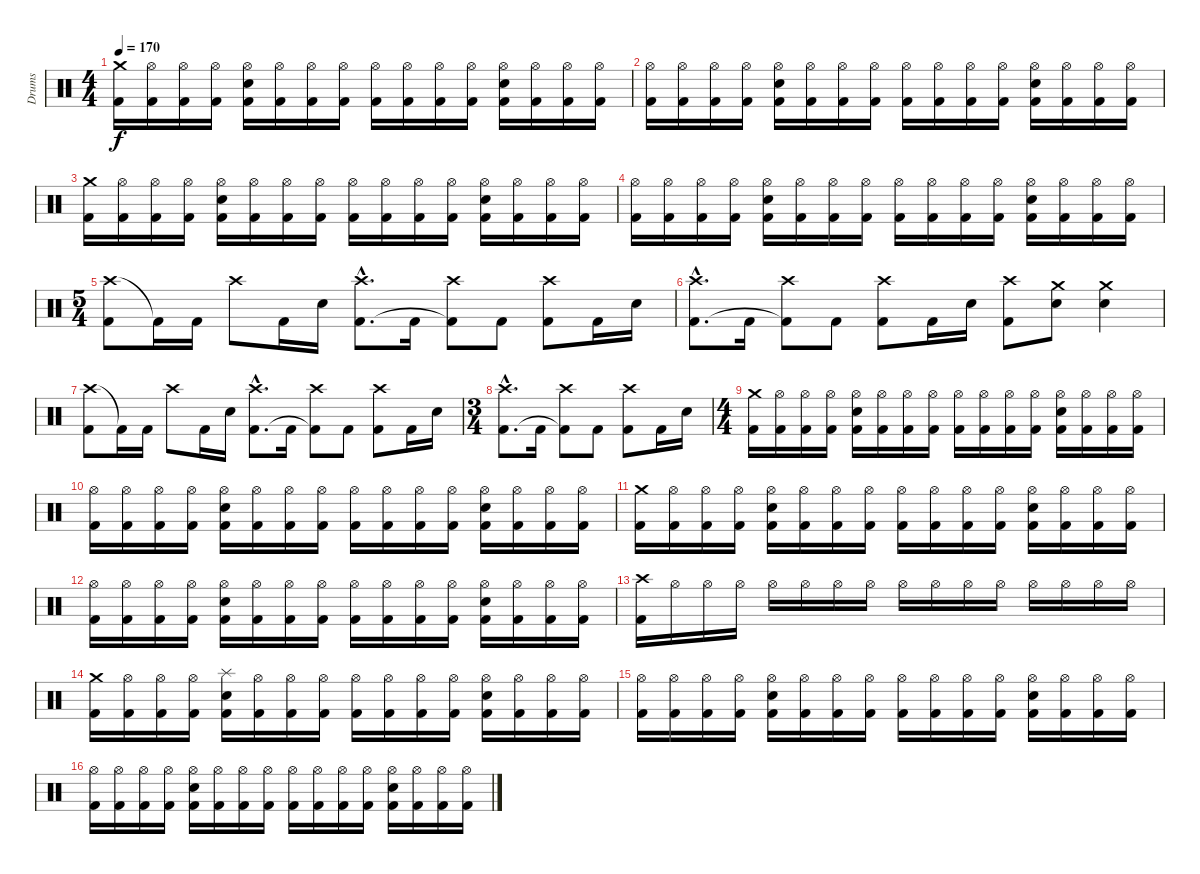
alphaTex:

\track ("Drums" "Drums") {instrument percussion}
\staff {score}
\articulation defaults
\ts (4 4)
\tempo 170
\clef neutral
\ks c
("Crash medium (hit)" "Kick (hit) 2").16{dy f} ("Hi-Hat (open)" "Kick (hit) 2").16 ("Hi-Hat (open)" "Kick (hit) 2").16 ("Hi-Hat (open)" "Kick (hit) 2").16 ("Hi-Hat (open)" "Electric Snare (hit)" "Kick (hit) 2").16 ("Hi-Hat (open)" "Kick (hit) 2").16 ("Hi-Hat (open)" "Kick (hit) 2").16 ("Hi-Hat (open)" "Kick (hit) 2").16 ("Hi-Hat (open)" "Kick (hit) 2").16 ("Hi-Hat (open)" "Kick (hit) 2").16 ("Hi-Hat (open)" "Kick (hit) 2").16 ("Hi-Hat (open)" "Kick (hit) 2").16 ("Hi-Hat (open)" "Electric Snare (hit)" "Kick (hit) 2").16 ("Hi-Hat (open)" "Kick (hit) 2").16 ("Hi-Hat (open)" "Kick (hit) 2").16 ("Hi-Hat (open)" "Kick (hit) 2").16 |
("Hi-Hat (open)" "Kick (hit) 2").16 ("Hi-Hat (open)" "Kick (hit) 2").16 ("Hi-Hat (open)" "Kick (hit) 2").16 ("Hi-Hat (open)" "Kick (hit) 2").16 ("Hi-Hat (open)" "Electric Snare (hit)" "Kick (hit) 2").16 ("Hi-Hat (open)" "Kick (hit) 2").16 ("Hi-Hat (open)" "Kick (hit) 2").16 ("Hi-Hat (open)" "Kick (hit) 2").16 ("Hi-Hat (open)" "Kick (hit) 2").16 ("Hi-Hat (open)" "Kick (hit) 2").16 ("Hi-Hat (open)" "Kick (hit) 2").16 ("Hi-Hat (open)" "Kick (hit) 2").16 ("Hi-Hat (open)" "Electric Snare (hit)" "Kick (hit) 2").16 ("Hi-Hat (open)" "Kick (hit) 2").16 ("Hi-Hat (open)" "Kick (hit) 2").16 ("Hi-Hat (open)" "Kick (hit) 2").16 |
("Crash medium (hit)" "Kick (hit) 2").16 ("Hi-Hat (open)" "Kick (hit) 2").16 ("Hi-Hat (open)" "Kick (hit) 2").16 ("Hi-Hat (open)" "Kick (hit) 2").16 ("Hi-Hat (open)" "Electric Snare (hit)" "Kick (hit) 2").16 ("Hi-Hat (open)" "Kick (hit) 2").16 ("Hi-Hat (open)" "Kick (hit) 2").16 ("Hi-Hat (open)" "Kick (hit) 2").16 ("Hi-Hat (open)" "Kick (hit) 2").16 ("Hi-Hat (open)" "Kick (hit) 2").16 ("Hi-Hat (open)" "Kick (hit) 2").16 ("Hi-Hat (open)" "Kick (hit) 2").16 ("Hi-Hat (open)" "Electric Snare (hit)" "Kick (hit) 2").16 ("Hi-Hat (open)" "Kick (hit) 2").16 ("Hi-Hat (open)" "Kick (hit) 2").16 ("Hi-Hat (open)" "Kick (hit) 2").16 |
("Hi-Hat (open)" "Kick (hit) 2").16 ("Hi-Hat (open)" "Kick (hit) 2").16 ("Hi-Hat (open)" "Kick (hit) 2").16 ("Hi-Hat (open)" "Kick (hit) 2").16 ("Hi-Hat (open)" "Electric Snare (hit)" "Kick (hit) 2").16 ("Hi-Hat (open)" "Kick (hit) 2").16 ("Hi-Hat (open)" "Kick (hit) 2").16 ("Hi-Hat (open)" "Kick (hit) 2").16 ("Hi-Hat (open)" "Kick (hit) 2").16 ("Hi-Hat (open)" "Kick (hit) 2").16 ("Hi-Hat (open)" "Kick (hit) 2").16 ("Hi-Hat (open)" "Kick (hit) 2").16 ("Hi-Hat (open)" "Electric Snare (hit)" "Kick (hit) 2").16 ("Hi-Hat (open)" "Kick (hit) 2").16 ("Hi-Hat (open)" "Kick (hit) 2").16 ("Hi-Hat (open)" "Kick (hit) 2").16 |
\ts (5 4)
("Crash high (hit)" "Kick (hit) 2").8 "Kick (hit) 2"{t}.16 "Kick (hit) 2".16 "Crash high (hit)".8 "Kick (hit) 2".16 "Electric Snare (hit)".16 ("Crash high (hit)"{hac} "Kick (hit) 2"{hac}).8{d} "Kick (hit) 2".16 ("Crash high (hit)" "Kick (hit) 2"{t}).8 "Kick (hit) 2".8 ("Crash high (hit)" "Kick (hit) 2").8 "Kick (hit) 2".16 "Electric Snare (hit)".16 |
("Crash high (hit)"{hac} "Kick (hit) 2"{hac}).8{d} "Kick (hit) 2".16 ("Crash high (hit)" "Kick (hit) 2"{t}).8 "Kick (hit) 2".8 ("Crash high (hit)" "Kick (hit) 2").8 "Kick (hit) 2".16 "Electric Snare (hit)".16 ("Crash high (hit)" "Kick (hit) 2").8 ("Crash medium (hit)" "Electric Snare (hit)").8 ("Crash medium (hit)" "Electric Snare (hit)").4 |
("Crash high (hit)" "Kick (hit) 2").8 "Kick (hit) 2"{t}.16 "Kick (hit) 2".16 "Crash high (hit)".8 "Kick (hit) 2".16 "Electric Snare (hit)".16 ("Crash high (hit)"{hac} "Kick (hit) 2"{hac}).8{d} "Kick (hit) 2".16 ("Crash high (hit)" "Kick (hit) 2"{t}).8 "Kick (hit) 2".8 ("Crash high (hit)" "Kick (hit) 2").8 "Kick (hit) 2".16 "Electric Snare (hit)".16 |
\ts (3 4)
("Crash high (hit)"{hac} "Kick (hit) 2"{hac}).8{d} "Kick (hit) 2".16 ("Crash high (hit)" "Kick (hit) 2"{t}).8 "Kick (hit) 2".8 ("Crash high (hit)" "Kick (hit) 2").8 "Kick (hit) 2".16 "Electric Snare (hit)".16 |
\ts (4 4)
("Crash medium (hit)" "Kick (hit) 2").16 ("Hi-Hat (open)" "Kick (hit) 2").16 ("Hi-Hat (open)" "Kick (hit) 2").16 ("Hi-Hat (open)" "Kick (hit) 2").16 ("Hi-Hat (open)" "Electric Snare (hit)" "Kick (hit) 2").16 ("Hi-Hat (open)" "Kick (hit) 2").16 ("Hi-Hat (open)" "Kick (hit) 2").16 ("Hi-Hat (open)" "Kick (hit) 2").16 ("Hi-Hat (open)" "Kick (hit) 2").16 ("Hi-Hat (open)" "Kick (hit) 2").16 ("Hi-Hat (open)" "Kick (hit) 2").16 ("Hi-Hat (open)" "Kick (hit) 2").16 ("Hi-Hat (open)" "Electric Snare (hit)" "Kick (hit) 2").16 ("Hi-Hat (open)" "Kick (hit) 2").16 ("Hi-Hat (open)" "Kick (hit) 2").16 ("Hi-Hat (open)" "Kick (hit) 2").16 |
("Hi-Hat (open)" "Kick (hit) 2").16 ("Hi-Hat (open)" "Kick (hit) 2").16 ("Hi-Hat (open)" "Kick (hit) 2").16 ("Hi-Hat (open)" "Kick (hit) 2").16 ("Hi-Hat (open)" "Electric Snare (hit)" "Kick (hit) 2").16 ("Hi-Hat (open)" "Kick (hit) 2").16 ("Hi-Hat (open)" "Kick (hit) 2").16 ("Hi-Hat (open)" "Kick (hit) 2").16 ("Hi-Hat (open)" "Kick (hit) 2").16 ("Hi-Hat (open)" "Kick (hit) 2").16 ("Hi-Hat (open)" "Kick (hit) 2").16 ("Hi-Hat (open)" "Kick (hit) 2").16 ("Hi-Hat (open)" "Electric Snare (hit)" "Kick (hit) 2").16 ("Hi-Hat (open)" "Kick (hit) 2").16 ("Hi-Hat (open)" "Kick (hit) 2").16 ("Hi-Hat (open)" "Kick (hit) 2").16 |
("Crash medium (hit)" "Kick (hit) 2").16 ("Hi-Hat (open)" "Kick (hit) 2").16 ("Hi-Hat (open)" "Kick (hit) 2").16 ("Hi-Hat (open)" "Kick (hit) 2").16 ("Hi-Hat (open)" "Electric Snare (hit)" "Kick (hit) 2").16 ("Hi-Hat (open)" "Kick (hit) 2").16 ("Hi-Hat (open)" "Kick (hit) 2").16 ("Hi-Hat (open)" "Kick (hit) 2").16 ("Hi-Hat (open)" "Kick (hit) 2").16 ("Hi-Hat (open)" "Kick (hit) 2").16 ("Hi-Hat (open)" "Kick (hit) 2").16 ("Hi-Hat (open)" "Kick (hit) 2").16 ("Hi-Hat (open)" "Electric Snare (hit)" "Kick (hit) 2").16 ("Hi-Hat (open)" "Kick (hit) 2").16 ("Hi-Hat (open)" "Kick (hit) 2").16 ("Hi-Hat (open)" "Kick (hit) 2").16 |
("Hi-Hat (open)" "Kick (hit) 2").16 ("Hi-Hat (open)" "Kick (hit) 2").16 ("Hi-Hat (open)" "Kick (hit) 2").16 ("Hi-Hat (open)" "Kick (hit) 2").16 ("Hi-Hat (open)" "Electric Snare (hit)" "Kick (hit) 2").16 ("Hi-Hat (open)" "Kick (hit) 2").16 ("Hi-Hat (open)" "Kick (hit) 2").16 ("Hi-Hat (open)" "Kick (hit) 2").16 ("Hi-Hat (open)" "Kick (hit) 2").16 ("Hi-Hat (open)" "Kick (hit) 2").16 ("Hi-Hat (open)" "Kick (hit) 2").16 ("Hi-Hat (open)" "Kick (hit) 2").16 ("Hi-Hat (open)" "Electric Snare (hit)" "Kick (hit) 2").16 ("Hi-Hat (open)" "Kick (hit) 2").16 ("Hi-Hat (open)" "Kick (hit) 2").16 ("Hi-Hat (open)" "Kick (hit) 2").16 |
("Crash high (hit)" "Kick (hit) 2").16 "Hi-Hat (open)".16 "Hi-Hat (open)".16 "Hi-Hat (open)".16 "Hi-Hat (open)".16 "Hi-Hat (open)".16 "Hi-Hat (open)".16 "Hi-Hat (open)".16 "Hi-Hat (open)".16 "Hi-Hat (open)".16 "Hi-Hat (open)".16 "Hi-Hat (open)".16 "Hi-Hat (open)".16 "Hi-Hat (open)".16 "Hi-Hat (open)".16 "Hi-Hat (open)".16 |
("Crash medium (hit)" "Kick (hit) 2").16 ("Hi-Hat (open)" "Kick (hit) 2").16 ("Hi-Hat (open)" "Kick (hit) 2").16 ("Hi-Hat (open)" "Kick (hit) 2").16 ("Splash (hit)" "Electric Snare (hit)" "Kick (hit) 2").16 ("Hi-Hat (open)" "Kick (hit) 2").16 ("Hi-Hat (open)" "Kick (hit) 2").16 ("Hi-Hat (open)" "Kick (hit) 2").16 ("Hi-Hat (open)" "Kick (hit) 2").16 ("Hi-Hat (open)" "Kick (hit) 2").16 ("Hi-Hat (open)" "Kick (hit) 2").16 ("Hi-Hat (open)" "Kick (hit) 2").16 ("Hi-Hat (open)" "Electric Snare (hit)" "Kick (hit) 2").16 ("Hi-Hat (open)" "Kick (hit) 2").16 ("Hi-Hat (open)" "Kick (hit) 2").16 ("Hi-Hat (open)" "Kick (hit) 2").16 |
("Hi-Hat (open)" "Kick (hit) 2").16 ("Hi-Hat (open)" "Kick (hit) 2").16 ("Hi-Hat (open)" "Kick (hit) 2").16 ("Hi-Hat (open)" "Kick (hit) 2").16 ("Hi-Hat (open)" "Electric Snare (hit)" "Kick (hit) 2").16 ("Hi-Hat (open)" "Kick (hit) 2").16 ("Hi-Hat (open)" "Kick (hit) 2").16 ("Hi-Hat (open)" "Kick (hit) 2").16 ("Hi-Hat (open)" "Kick (hit) 2").16 ("Hi-Hat (open)" "Kick (hit) 2").16 ("Hi-Hat (open)" "Kick (hit) 2").16 ("Hi-Hat (open)" "Kick (hit) 2").16 ("Hi-Hat (open)" "Electric Snare (hit)" "Kick (hit) 2").16 ("Hi-Hat (open)" "Kick (hit) 2").16 ("Hi-Hat (open)" "Kick (hit) 2").16 ("Hi-Hat (open)" "Kick (hit) 2").16 |
("Hi-Hat (open)" "Kick (hit) 2").16 ("Hi-Hat (open)" "Kick (hit) 2").16 ("Hi-Hat (open)" "Kick (hit) 2").16 ("Hi-Hat (open)" "Kick (hit) 2").16 ("Hi-Hat (open)" "Electric Snare (hit)" "Kick (hit) 2").16 ("Hi-Hat (open)" "Kick (hit) 2").16 ("Hi-Hat (open)" "Kick (hit) 2").16 ("Hi-Hat (open)" "Kick (hit) 2").16 ("Hi-Hat (open)" "Kick (hit) 2").16 ("Hi-Hat (open)" "Kick (hit) 2").16 ("Hi-Hat (open)" "Kick (hit) 2").16 ("Hi-Hat (open)" "Kick (hit) 2").16 ("Hi-Hat (open)" "Electric Snare (hit)" "Kick (hit) 2").16 ("Hi-Hat (open)" "Kick (hit) 2").16 ("Hi-Hat (open)" "Kick (hit) 2").16 ("Hi-Hat (open)" "Kick (hit) 2").16
